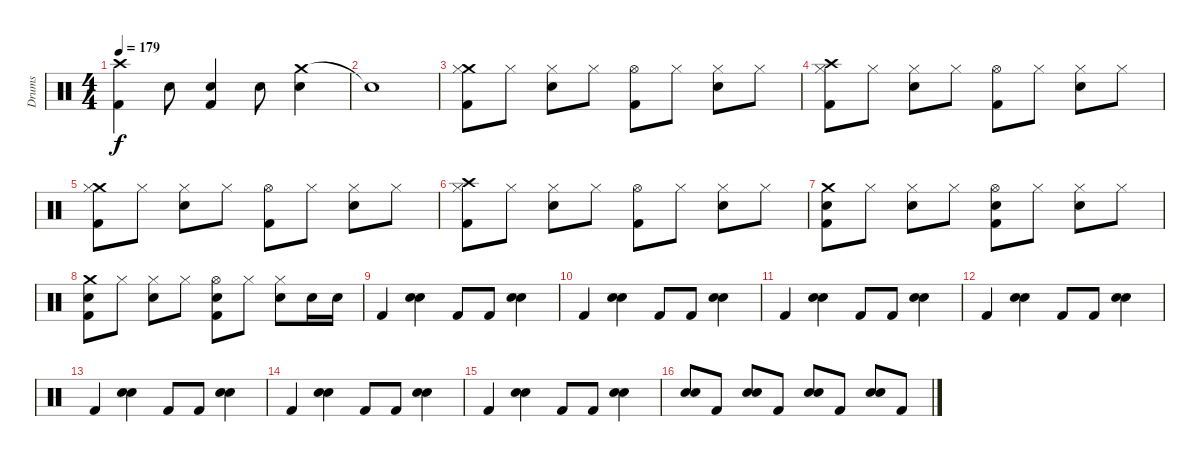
\track ("Drums" "Drums") {instrument percussion}
\staff {score}
\articulation defaults
\ts (4 4)
\tempo 179
\clef neutral
\ks c
("Crash high (hit)" "Kick (hit) 2").4{dy f} "Electric Snare (hit)".8 ("Kick (hit) 2" "Electric Snare (hit)").4 "Electric Snare (hit)".8 ("Crash medium (hit)" "Electric Snare (hit)").4 |
"Snare (hit)"{t}.1 |
("Kick (hit) 2" "Crash medium (hit)" "Hi-Hat (closed)").8 "Hi-Hat (closed)".8 ("Electric Snare (hit)" "Hi-Hat (closed)").8 "Hi-Hat (closed)".8 ("Kick (hit) 2" "Hi-Hat (open)").8 "Hi-Hat (closed)".8 ("Electric Snare (hit)" "Hi-Hat (closed)").8 "Hi-Hat (closed)".8 |
("Kick (hit) 2" "Crash high (hit)" "Hi-Hat (closed)").8 "Hi-Hat (closed)".8 ("Electric Snare (hit)" "Hi-Hat (closed)").8 "Hi-Hat (closed)".8 ("Kick (hit) 2" "Hi-Hat (open)").8 "Hi-Hat (closed)".8 ("Electric Snare (hit)" "Hi-Hat (closed)").8 "Hi-Hat (closed)".8 |
("Kick (hit) 2" "Crash medium (hit)" "Hi-Hat (closed)").8 "Hi-Hat (closed)".8 ("Electric Snare (hit)" "Hi-Hat (closed)").8 "Hi-Hat (closed)".8 ("Kick (hit) 2" "Hi-Hat (open)").8 "Hi-Hat (closed)".8 ("Electric Snare (hit)" "Hi-Hat (closed)").8 "Hi-Hat (closed)".8 |
("Kick (hit) 2" "Crash high (hit)" "Hi-Hat (closed)").8 "Hi-Hat (closed)".8 ("Electric Snare (hit)" "Hi-Hat (closed)").8 "Hi-Hat (closed)".8 ("Kick (hit) 2" "Hi-Hat (open)").8 "Hi-Hat (closed)".8 ("Electric Snare (hit)" "Hi-Hat (closed)").8 "Hi-Hat (closed)".8 |
("Kick (hit) 2" "Crash medium (hit)" "Electric Snare (hit)").8 "Hi-Hat (closed)".8 ("Electric Snare (hit)" "Hi-Hat (closed)").8 "Hi-Hat (closed)".8 ("Kick (hit) 2" "Hi-Hat (open)" "Electric Snare (hit)").8 "Hi-Hat (closed)".8 ("Electric Snare (hit)" "Hi-Hat (closed)").8 "Hi-Hat (closed)".8 |
("Kick (hit) 2" "Crash medium (hit)" "Electric Snare (hit)").8 "Hi-Hat (closed)".8 ("Electric Snare (hit)" "Hi-Hat (closed)").8 "Hi-Hat (closed)".8 ("Kick (hit) 2" "Hi-Hat (open)" "Electric Snare (hit)").8 "Hi-Hat (closed)".8 ("Electric Snare (hit)" "Hi-Hat (closed)").8 "Electric Snare (hit)".16 "Electric Snare (hit)".16 |
"Kick (hit) 2".4 ("Hand Clap (hit)" "Electric Snare (hit)").4 "Kick (hit) 2".8 "Kick (hit) 2".8 ("Hand Clap (hit)" "Electric Snare (hit)").4 |
"Kick (hit) 2".4 ("Hand Clap (hit)" "Electric Snare (hit)").4 "Kick (hit) 2".8 "Kick (hit) 2".8 ("Hand Clap (hit)" "Electric Snare (hit)").4 |
"Kick (hit) 2".4 ("Hand Clap (hit)" "Electric Snare (hit)").4 "Kick (hit) 2".8 "Kick (hit) 2".8 ("Hand Clap (hit)" "Electric Snare (hit)").4 |
"Kick (hit) 2".4 ("Hand Clap (hit)" "Electric Snare (hit)").4 "Kick (hit) 2".8 "Kick (hit) 2".8 ("Hand Clap (hit)" "Electric Snare (hit)").4 |
"Kick (hit) 2".4 ("Hand Clap (hit)" "Electric Snare (hit)").4 "Kick (hit) 2".8 "Kick (hit) 2".8 ("Hand Clap (hit)" "Electric Snare (hit)").4 |
"Kick (hit) 2".4 ("Hand Clap (hit)" "Electric Snare (hit)").4 "Kick (hit) 2".8 "Kick (hit) 2".8 ("Hand Clap (hit)" "Electric Snare (hit)").4 |
"Kick (hit) 2".4 ("Hand Clap (hit)" "Electric Snare (hit)").4 "Kick (hit) 2".8 "Kick (hit) 2".8 ("Hand Clap (hit)" "Electric Snare (hit)").4 |
("Hand Clap (hit)" "Electric Snare (hit)").8 "Kick (hit) 2".8 ("Hand Clap (hit)" "Electric Snare (hit)").8 "Kick (hit) 2".8 ("Hand Clap (hit)" "Electric Snare (hit)").8 "Kick (hit) 2".8 ("Hand Clap (hit)" "Electric Snare (hit)").8 "Kick (hit) 2".8
